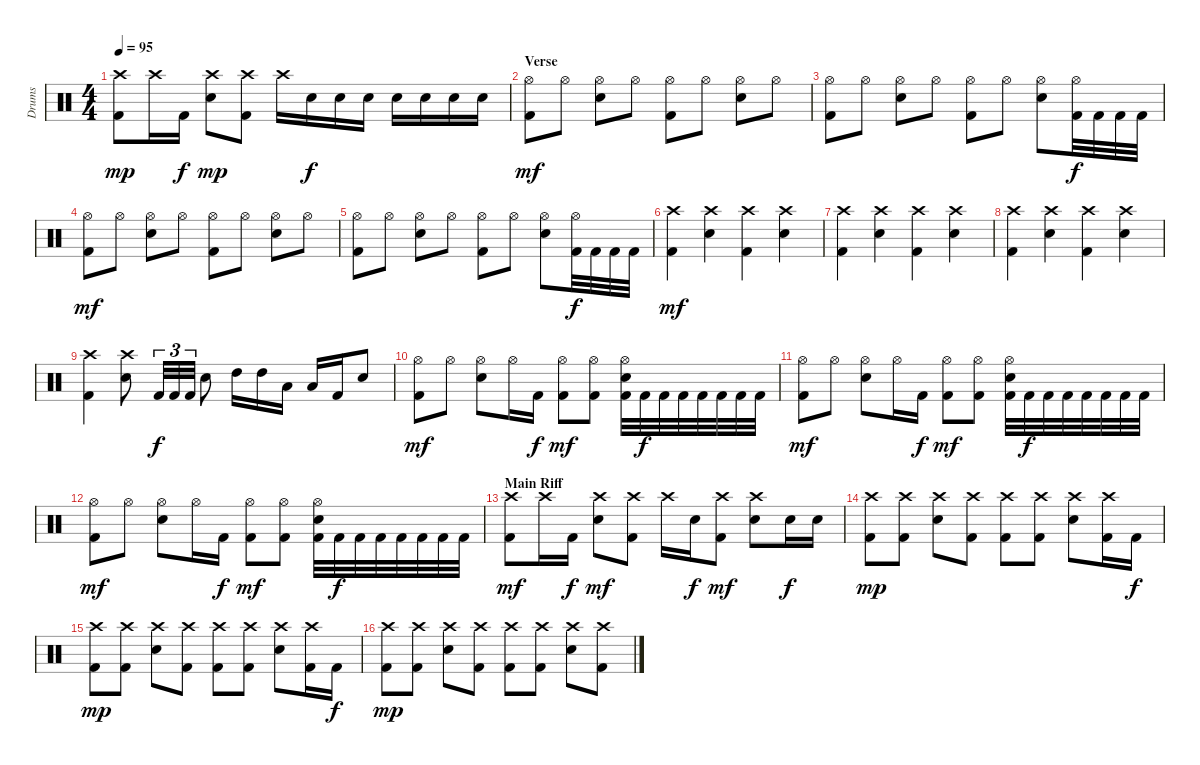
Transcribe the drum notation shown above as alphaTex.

\track ("Drums" "Drums") {instrument percussion}
\staff {score}
\articulation defaults
\ts (4 4)
\tempo 95
\clef neutral
\ks c
("Crash high (hit)" "Kick (hit) 2").8{dy mp} "Crash high (hit)".16 "Kick (hit) 2".16{dy f} ("Crash high (hit)" "Electric Snare (hit)").8{dy mp} ("Crash high (hit)" "Kick (hit) 2").8 "Crash high (hit)".16 "Electric Snare (hit)".16{dy f} "Electric Snare (hit)".16 "Electric Snare (hit)".16 "Electric Snare (hit)".16 "Electric Snare (hit)".16 "Electric Snare (hit)".16 "Electric Snare (hit)".16 |
\section ("" "Verse")
("Hi-Hat (open)" "Kick (hit) 2").8{dy mf} "Hi-Hat (open)".8 ("Hi-Hat (open)" "Electric Snare (hit)").8 "Hi-Hat (open)".8 ("Hi-Hat (open)" "Kick (hit) 2").8 "Hi-Hat (open)".8 ("Hi-Hat (open)" "Electric Snare (hit)").8 "Hi-Hat (open)".8 |
("Hi-Hat (open)" "Kick (hit) 2").8 "Hi-Hat (open)".8 ("Hi-Hat (open)" "Electric Snare (hit)").8 "Hi-Hat (open)".8 ("Hi-Hat (open)" "Kick (hit) 2").8 "Hi-Hat (open)".8 ("Hi-Hat (open)" "Electric Snare (hit)").8 ("Hi-Hat (open)" "Kick (hit) 2").32{dy f} "Kick (hit) 2".32 "Kick (hit) 2".32 "Kick (hit) 2".32 |
("Hi-Hat (open)" "Kick (hit) 2").8{dy mf} "Hi-Hat (open)".8 ("Hi-Hat (open)" "Electric Snare (hit)").8 "Hi-Hat (open)".8 ("Hi-Hat (open)" "Kick (hit) 2").8 "Hi-Hat (open)".8 ("Hi-Hat (open)" "Electric Snare (hit)").8 "Hi-Hat (open)".8 |
("Hi-Hat (open)" "Kick (hit) 2").8 "Hi-Hat (open)".8 ("Hi-Hat (open)" "Electric Snare (hit)").8 "Hi-Hat (open)".8 ("Hi-Hat (open)" "Kick (hit) 2").8 "Hi-Hat (open)".8 ("Hi-Hat (open)" "Electric Snare (hit)").8 ("Hi-Hat (open)" "Kick (hit) 2").32{dy f} "Kick (hit) 2".32 "Kick (hit) 2".32 "Kick (hit) 2".32 |
("Crash high (hit)" "Kick (hit) 2").4{dy mf} ("Crash high (hit)" "Electric Snare (hit)").4 ("Crash high (hit)" "Kick (hit) 2").4 ("Crash high (hit)" "Electric Snare (hit)").4 |
("Crash high (hit)" "Kick (hit) 2").4 ("Crash high (hit)" "Electric Snare (hit)").4 ("Crash high (hit)" "Kick (hit) 2").4 ("Crash high (hit)" "Electric Snare (hit)").4 |
("Crash high (hit)" "Kick (hit) 2").4 ("Crash high (hit)" "Electric Snare (hit)").4 ("Crash high (hit)" "Kick (hit) 2").4 ("Crash high (hit)" "Electric Snare (hit)").4 |
("Crash high (hit)" "Kick (hit) 2").4 ("Crash high (hit)" "Electric Snare (hit)").8 "Kick (hit) 2".32{tu (3 2) dy f} "Kick (hit) 2".32{tu (3 2)} "Kick (hit) 2".32{tu (3 2)} "Electric Snare (hit)".8 "High Tom (hit)".16 "High Tom (hit)".16 "Low Tom (hit)".16 "Low Tom (hit)".16 "Kick (hit) 2".16 "Electric Snare (hit)".8 |
("Hi-Hat (open)" "Kick (hit) 2").8{dy mf} "Hi-Hat (open)".8 ("Hi-Hat (open)" "Electric Snare (hit)").8 "Hi-Hat (open)".16 "Kick (hit) 2".16{dy f} ("Hi-Hat (open)" "Kick (hit) 2").8{dy mf} ("Hi-Hat (open)" "Kick (hit) 2").8 ("Hi-Hat (open)" "Electric Snare (hit)" "Kick (hit) 2").32 "Kick (hit) 2".32{dy f} "Kick (hit) 2".32 "Kick (hit) 2".32 "Kick (hit) 2".32 "Kick (hit) 2".32 "Kick (hit) 2".32 "Kick (hit) 2".32 |
("Hi-Hat (open)" "Kick (hit) 2").8{dy mf} "Hi-Hat (open)".8 ("Hi-Hat (open)" "Electric Snare (hit)").8 "Hi-Hat (open)".16 "Kick (hit) 2".16{dy f} ("Hi-Hat (open)" "Kick (hit) 2").8{dy mf} ("Hi-Hat (open)" "Kick (hit) 2").8 ("Hi-Hat (open)" "Electric Snare (hit)" "Kick (hit) 2").32 "Kick (hit) 2".32{dy f} "Kick (hit) 2".32 "Kick (hit) 2".32 "Kick (hit) 2".32 "Kick (hit) 2".32 "Kick (hit) 2".32 "Kick (hit) 2".32 |
("Hi-Hat (open)" "Kick (hit) 2").8{dy mf} "Hi-Hat (open)".8 ("Hi-Hat (open)" "Electric Snare (hit)").8 "Hi-Hat (open)".16 "Kick (hit) 2".16{dy f} ("Hi-Hat (open)" "Kick (hit) 2").8{dy mf} ("Hi-Hat (open)" "Kick (hit) 2").8 ("Hi-Hat (open)" "Electric Snare (hit)" "Kick (hit) 2").32 "Kick (hit) 2".32{dy f} "Kick (hit) 2".32 "Kick (hit) 2".32 "Kick (hit) 2".32 "Kick (hit) 2".32 "Kick (hit) 2".32 "Kick (hit) 2".32 |
\section ("" "Main Riff")
("Crash high (hit)" "Kick (hit) 2").8{dy mf} "Crash high (hit)".16 "Kick (hit) 2".16{dy f} ("Crash high (hit)" "Electric Snare (hit)").8{dy mf} ("Crash high (hit)" "Kick (hit) 2").8 "Crash high (hit)".16 "Electric Snare (hit)".16{dy f} ("Crash high (hit)" "Kick (hit) 2").8{dy mf} ("Crash high (hit)" "Electric Snare (hit)").8 "Electric Snare (hit)".16{dy f} "Electric Snare (hit)".16 |
("Crash high (hit)" "Kick (hit) 2").8{dy mp} ("Crash high (hit)" "Kick (hit) 2").8 ("Crash high (hit)" "Electric Snare (hit)").8 ("Crash high (hit)" "Kick (hit) 2").8 ("Crash high (hit)" "Kick (hit) 2").8 ("Crash high (hit)" "Kick (hit) 2").8 ("Crash high (hit)" "Electric Snare (hit)").8 ("Crash high (hit)" "Kick (hit) 2").16 "Kick (hit) 2".16{dy f} |
("Crash high (hit)" "Kick (hit) 2").8{dy mp} ("Crash high (hit)" "Kick (hit) 2").8 ("Crash high (hit)" "Electric Snare (hit)").8 ("Crash high (hit)" "Kick (hit) 2").8 ("Crash high (hit)" "Kick (hit) 2").8 ("Crash high (hit)" "Kick (hit) 2").8 ("Crash high (hit)" "Electric Snare (hit)").8 ("Crash high (hit)" "Kick (hit) 2").16 "Kick (hit) 2".16{dy f} |
("Crash high (hit)" "Kick (hit) 2").8{dy mp} ("Crash high (hit)" "Kick (hit) 2").8 ("Crash high (hit)" "Electric Snare (hit)").8 ("Crash high (hit)" "Kick (hit) 2").8 ("Crash high (hit)" "Kick (hit) 2").8 ("Crash high (hit)" "Kick (hit) 2").8 ("Crash high (hit)" "Electric Snare (hit)").8 ("Crash high (hit)" "Kick (hit) 2").8
